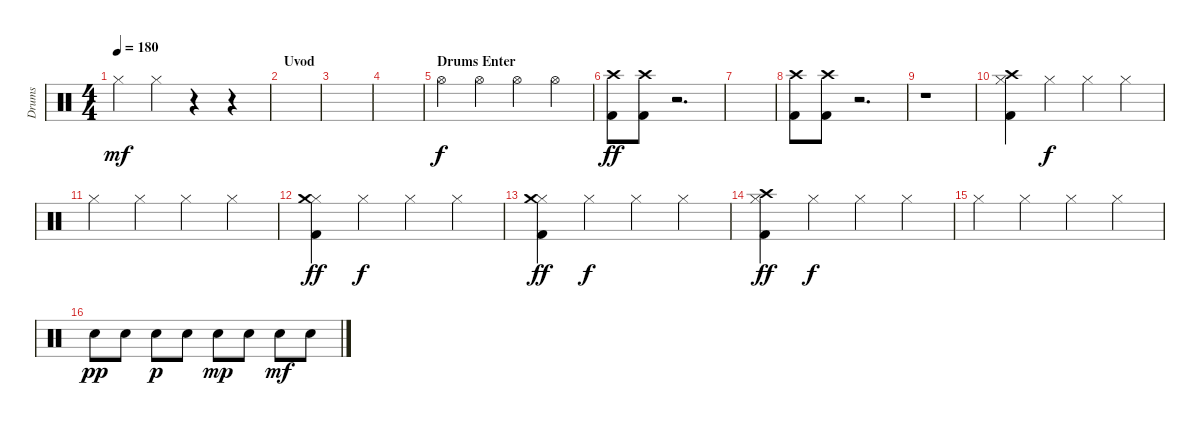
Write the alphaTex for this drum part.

\track ("Drums" "Drums") {instrument percussion}
\staff {score}
\articulation defaults
\ts (4 4)
\tempo 180
\clef neutral
\ks c "Hi-Hat (closed)".4{dy mf} "Hi-Hat (closed)".4
r.4 r.4 |
\section ("" "Uvod")
|
|
|
\section ("" "Drums Enter")
"Hi-Hat (open)".4{dy f} "Hi-Hat (open)".4 "Hi-Hat (open)".4 "Hi-Hat (open)".4 |
("Crash high (hit)" "Kick (hit) 2").8{dy ff} ("Crash high (hit)" "Kick (hit) 2").8 r.2{d} |
|
("Crash high (hit)" "Kick (hit) 2").8 ("Crash high (hit)" "Kick (hit) 2").8 r.2{d} |
r.1 |
("Hi-Hat (closed)" "Crash high (hit)" "Kick (hit) 2").4 "Hi-Hat (closed)".4{dy f} "Hi-Hat (closed)".4 "Hi-Hat (closed)".4 |
"Hi-Hat (closed)".4 "Hi-Hat (closed)".4 "Hi-Hat (closed)".4 "Hi-Hat (closed)".4 |
("Hi-Hat (closed)" "Crash medium (hit)" "Kick (hit) 2").4{dy ff} "Hi-Hat (closed)".4{dy f} "Hi-Hat (closed)".4 "Hi-Hat (closed)".4 |
("Hi-Hat (closed)" "Crash medium (hit)" "Kick (hit) 2").4{dy ff} "Hi-Hat (closed)".4{dy f} "Hi-Hat (closed)".4 "Hi-Hat (closed)".4 |
("Hi-Hat (closed)" "Crash high (hit)" "Kick (hit) 2").4{dy ff} "Hi-Hat (closed)".4{dy f} "Hi-Hat (closed)".4 "Hi-Hat (closed)".4 |
"Hi-Hat (closed)".4 "Hi-Hat (closed)".4 "Hi-Hat (closed)".4 "Hi-Hat (closed)".4 |
"Snare (hit) 2".8{dy pp} "Snare (hit) 2".8 "Snare (hit) 2".8{dy p} "Snare (hit) 2".8 "Snare (hit) 2".8{dy mp} "Snare (hit) 2".8 "Snare (hit) 2".8{dy mf} "Snare (hit) 2".8
